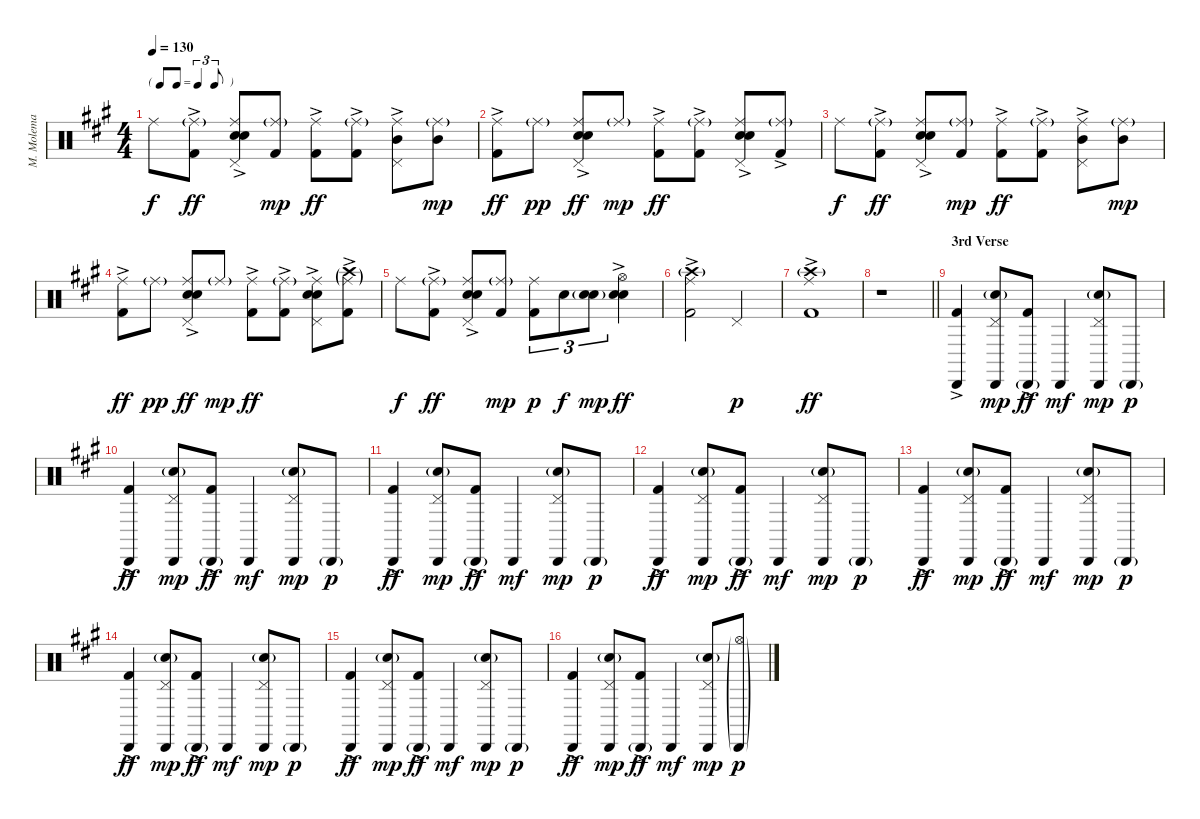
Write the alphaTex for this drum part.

\track ("M. Molema" "M. Molema") {instrument percussion}
\staff {score}
\articulation defaults
\ts (4 4)
\tf triplet8th
\tempo 130
\clef neutral
\ks a "Ride (middle)".8{dy f}
("Ride (middle)"{g} "Kick (hit) 2"{ac}).8{dy ff} ("Ride (middle)" "Electric Snare (hit)"{ac} "Snare (hit) 2" "Pedal Hi-Hat (hit)").8 ("Ride (middle)"{g} "Kick (hit) 2").8{dy mp} ("Ride (middle)" "Kick (hit) 2"{ac}).8{dy ff} ("Ride (middle)"{g} "Kick (hit) 2"{ac}).8 ("Ride (middle)" "Mid Tom (hit)"{ac} "Pedal Hi-Hat (hit)").8 ("Ride (middle)"{g} "Mid Tom (hit)").8{dy mp} |
("Ride (middle)" "Kick (hit) 2"{ac}).8{dy ff} "Ride (middle)"{g}.8{dy pp} ("Ride (middle)" "Electric Snare (hit)"{ac} "Snare (hit) 2" "Pedal Hi-Hat (hit)").8{dy ff} "Ride (middle)"{g}.8{dy mp} ("Ride (middle)" "Kick (hit) 2"{ac}).8{dy ff} ("Ride (middle)"{g} "Kick (hit) 2"{ac}).8 ("Ride (middle)" "Electric Snare (hit)"{ac} "Snare (hit) 2" "Pedal Hi-Hat (hit)").8 ("Ride (middle)"{g} "Kick (hit) 2"{ac}).8 |
"Ride (middle)".8{dy f} ("Ride (middle)"{g} "Kick (hit) 2"{ac}).8{dy ff} ("Ride (middle)" "Electric Snare (hit)"{ac} "Snare (hit) 2" "Pedal Hi-Hat (hit)").8 ("Ride (middle)"{g} "Kick (hit) 2").8{dy mp} ("Ride (middle)" "Kick (hit) 2"{ac}).8{dy ff} ("Ride (middle)"{g} "Kick (hit) 2"{ac}).8 ("Ride (middle)" "Mid Tom (hit)"{ac} "Pedal Hi-Hat (hit)").8 ("Ride (middle)"{g} "Mid Tom (hit)").8{dy mp} |
("Ride (middle)" "Kick (hit) 2"{ac}).8{dy ff} "Ride (middle)"{g}.8{dy pp} ("Ride (middle)" "Electric Snare (hit)"{ac} "Snare (hit) 2" "Pedal Hi-Hat (hit)").8{dy ff} "Ride (middle)"{g}.8{dy mp} ("Ride (middle)" "Kick (hit) 2"{ac}).8{dy ff} ("Ride (middle)"{g} "Kick (hit) 2"{ac}).8 ("Ride (middle)" "Electric Snare (hit)"{ac} "Snare (hit) 2" "Pedal Hi-Hat (hit)").8 ("Ride (middle)"{g} "Crash high (hit)"{g} "Kick (hit) 2"{ac}).8 |
"Ride (middle)".8{dy f} ("Ride (middle)"{g} "Kick (hit) 2"{ac}).8{dy ff} ("Ride (middle)" "Electric Snare (hit)"{ac} "Snare (hit) 2" "Pedal Hi-Hat (hit)").8 ("Ride (middle)"{g} "Kick (hit) 2").8{dy mp} ("Ride (middle)" "Kick (hit) 2").8{tu (3 2) dy p} "Snare (hit) 2".8{tu (3 2) dy f} ("Electric Snare (hit)"{g} "Snare (hit) 2").8{tu (3 2) dy mp} ("Hi-Hat (open)" "Electric Snare (hit)"{ac} "Snare (hit) 2").4{dy ff} |
("Ride (middle)" "Crash high (hit)"{g} "Kick (hit) 2"{ac}).2 "Pedal Hi-Hat (hit)".2{dy p} |
("Ride (middle)" "Crash high (hit)"{g} "Kick (hit) 2"{ac}).1{dy ff} |
\barLineRight lightlight
r.1 |
\section ("" "3rd Verse")
("Cabasa (hit)" "Kick (hit) 2"{ac}).4 ("Pedal Hi-Hat (hit)" "Cabasa (hit)" "Snare (hit) 2"{g}).8{dy mp} ("Cabasa (hit)"{g} "Kick (hit) 2"{ac}).8{dy ff} "Cabasa (hit)".4{dy mf} ("Pedal Hi-Hat (hit)" "Cabasa (hit)" "Snare (hit) 2"{g}).8{dy mp} "Cabasa (hit)"{g}.8{dy p} |
("Cabasa (hit)" "Kick (hit) 2"{ac}).4{dy ff} ("Pedal Hi-Hat (hit)" "Cabasa (hit)" "Snare (hit) 2"{g}).8{dy mp} ("Cabasa (hit)"{g} "Kick (hit) 2"{ac}).8{dy ff} "Cabasa (hit)".4{dy mf} ("Pedal Hi-Hat (hit)" "Cabasa (hit)" "Snare (hit) 2"{g}).8{dy mp} "Cabasa (hit)"{g}.8{dy p} |
("Cabasa (hit)" "Kick (hit) 2"{ac}).4{dy ff} ("Pedal Hi-Hat (hit)" "Cabasa (hit)" "Snare (hit) 2"{g}).8{dy mp} ("Cabasa (hit)"{g} "Kick (hit) 2"{ac}).8{dy ff} "Cabasa (hit)".4{dy mf} ("Pedal Hi-Hat (hit)" "Cabasa (hit)" "Snare (hit) 2"{g}).8{dy mp} "Cabasa (hit)"{g}.8{dy p} |
("Cabasa (hit)" "Kick (hit) 2"{ac}).4{dy ff} ("Pedal Hi-Hat (hit)" "Cabasa (hit)" "Snare (hit) 2"{g}).8{dy mp} ("Cabasa (hit)"{g} "Kick (hit) 2"{ac}).8{dy ff} "Cabasa (hit)".4{dy mf} ("Pedal Hi-Hat (hit)" "Cabasa (hit)" "Snare (hit) 2"{g}).8{dy mp} "Cabasa (hit)"{g}.8{dy p} |
("Cabasa (hit)" "Kick (hit) 2"{ac}).4{dy ff} ("Pedal Hi-Hat (hit)" "Cabasa (hit)" "Snare (hit) 2"{g}).8{dy mp} ("Cabasa (hit)"{g} "Kick (hit) 2"{ac}).8{dy ff} "Cabasa (hit)".4{dy mf} ("Pedal Hi-Hat (hit)" "Cabasa (hit)" "Snare (hit) 2"{g}).8{dy mp} "Cabasa (hit)"{g}.8{dy p} |
("Cabasa (hit)" "Kick (hit) 2"{ac}).4{dy ff} ("Pedal Hi-Hat (hit)" "Cabasa (hit)" "Snare (hit) 2"{g}).8{dy mp} ("Cabasa (hit)"{g} "Kick (hit) 2"{ac}).8{dy ff} "Cabasa (hit)".4{dy mf} ("Pedal Hi-Hat (hit)" "Cabasa (hit)" "Snare (hit) 2"{g}).8{dy mp} "Cabasa (hit)"{g}.8{dy p} |
("Cabasa (hit)" "Kick (hit) 2"{ac}).4{dy ff} ("Pedal Hi-Hat (hit)" "Cabasa (hit)" "Snare (hit) 2"{g}).8{dy mp} ("Cabasa (hit)"{g} "Kick (hit) 2"{ac}).8{dy ff} "Cabasa (hit)".4{dy mf} ("Pedal Hi-Hat (hit)" "Cabasa (hit)" "Snare (hit) 2"{g}).8{dy mp} "Cabasa (hit)"{g}.8{dy p} |
("Cabasa (hit)" "Kick (hit) 2"{ac}).4{dy ff} ("Pedal Hi-Hat (hit)" "Cabasa (hit)" "Snare (hit) 2"{g}).8{dy mp} ("Cabasa (hit)"{g} "Kick (hit) 2"{ac}).8{dy ff} "Cabasa (hit)".4{dy mf} ("Pedal Hi-Hat (hit)" "Cabasa (hit)" "Snare (hit) 2"{g}).8{dy mp} ("Hi-Hat (open)"{g} "Cabasa (hit)"{g}).8{dy p}
